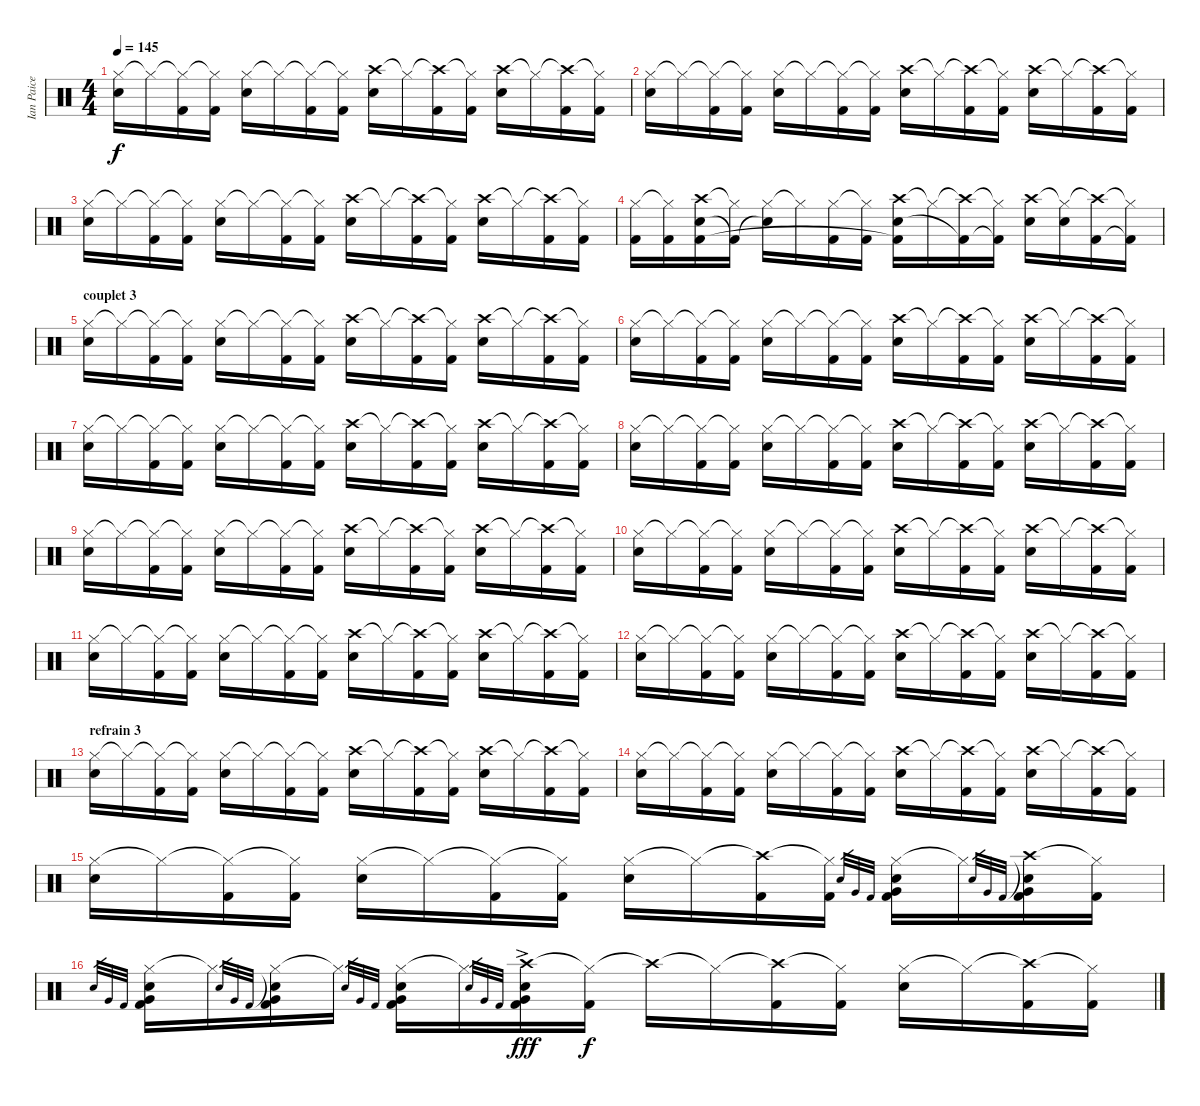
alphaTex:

\track ("Ian Paice" "Ian Paice") {instrument percussion}
\staff {score}
\articulation defaults
\ts (4 4)
\tempo 145
\clef neutral
\ks c
("Hi-Hat (closed)" "Snare (hit) 2").16{dy f} "Hi-Hat (closed)"{t}.16 ("Hi-Hat (closed)"{t} "Kick (hit) 2").16 ("Hi-Hat (closed)"{t} "Kick (hit) 2").16 ("Hi-Hat (closed)" "Snare (hit) 2").16 "Hi-Hat (closed)"{t}.16 ("Hi-Hat (closed)"{t} "Kick (hit) 2").16 ("Hi-Hat (closed)"{t} "Kick (hit) 2").16 ("Crash high (hit)" "Snare (hit) 2").16 "Hi-Hat (closed)"{t}.16 ("Crash high (hit)"{t} "Kick (hit) 2").16 ("Hi-Hat (closed)"{t} "Kick (hit) 2").16 ("Crash high (hit)" "Snare (hit) 2").16 "Hi-Hat (closed)"{t}.16 ("Crash high (hit)"{t} "Kick (hit) 2").16 ("Hi-Hat (closed)"{t} "Kick (hit) 2").16 |
("Hi-Hat (closed)" "Snare (hit) 2").16 "Hi-Hat (closed)"{t}.16 ("Hi-Hat (closed)"{t} "Kick (hit) 2").16 ("Hi-Hat (closed)"{t} "Kick (hit) 2").16 ("Hi-Hat (closed)" "Snare (hit) 2").16 "Hi-Hat (closed)"{t}.16 ("Hi-Hat (closed)"{t} "Kick (hit) 2").16 ("Hi-Hat (closed)"{t} "Kick (hit) 2").16 ("Crash high (hit)" "Snare (hit) 2").16 "Hi-Hat (closed)"{t}.16 ("Crash high (hit)"{t} "Kick (hit) 2").16 ("Hi-Hat (closed)"{t} "Kick (hit) 2").16 ("Crash high (hit)" "Snare (hit) 2").16 "Hi-Hat (closed)"{t}.16 ("Crash high (hit)"{t} "Kick (hit) 2").16 ("Hi-Hat (closed)"{t} "Kick (hit) 2").16 |
("Hi-Hat (closed)" "Snare (hit) 2").16 "Hi-Hat (closed)"{t}.16 ("Hi-Hat (closed)"{t} "Kick (hit) 2").16 ("Hi-Hat (closed)"{t} "Kick (hit) 2").16 ("Hi-Hat (closed)" "Snare (hit) 2").16 "Hi-Hat (closed)"{t}.16 ("Hi-Hat (closed)"{t} "Kick (hit) 2").16 ("Hi-Hat (closed)"{t} "Kick (hit) 2").16 ("Crash high (hit)" "Snare (hit) 2").16 "Hi-Hat (closed)"{t}.16 ("Crash high (hit)"{t} "Kick (hit) 2").16 ("Hi-Hat (closed)"{t} "Kick (hit) 2").16 ("Crash high (hit)" "Snare (hit) 2").16 "Hi-Hat (closed)"{t}.16 ("Crash high (hit)"{t} "Kick (hit) 2").16 ("Hi-Hat (closed)"{t} "Kick (hit) 2").16 |
("Hi-Hat (closed)" "Kick (hit) 2").16 ("Hi-Hat (closed)"{t} "Kick (hit) 2").16 ("Crash high (hit)" "Snare (hit) 2" "Kick (hit) 2").16 ("Hi-Hat (closed)"{t} "Kick (hit) 2"{t}).16 ("Hi-Hat (closed)" "Snare (hit) 2"{t}).16 "Hi-Hat (closed)"{t}.16 ("Hi-Hat (closed)" "Kick (hit) 2").16 ("Hi-Hat (closed)"{t} "Kick (hit) 2").16 ("Crash high (hit)" "Snare (hit) 2" "Kick (hit) 2"{t}).16 "Hi-Hat (closed)"{t}.16 ("Crash high (hit)"{t} "Kick (hit) 2"{t}).16 ("Hi-Hat (closed)"{t} "Kick (hit) 2"{t}).16 ("Crash high (hit)" "Snare (hit) 2").16 ("Hi-Hat (closed)"{t} "Snare (hit) 2").16 ("Crash high (hit)"{t} "Kick (hit) 2").16 ("Hi-Hat (closed)"{t} "Kick (hit) 2"{t}).16 |
\section ("" "couplet 3")
("Hi-Hat (closed)" "Snare (hit) 2").16 "Hi-Hat (closed)"{t}.16 ("Hi-Hat (closed)"{t} "Kick (hit) 2").16 ("Hi-Hat (closed)"{t} "Kick (hit) 2").16 ("Hi-Hat (closed)" "Snare (hit) 2").16 "Hi-Hat (closed)"{t}.16 ("Hi-Hat (closed)"{t} "Kick (hit) 2").16 ("Hi-Hat (closed)"{t} "Kick (hit) 2").16 ("Crash high (hit)" "Snare (hit) 2").16 "Hi-Hat (closed)"{t}.16 ("Crash high (hit)"{t} "Kick (hit) 2").16 ("Hi-Hat (closed)"{t} "Kick (hit) 2").16 ("Crash high (hit)" "Snare (hit) 2").16 "Hi-Hat (closed)"{t}.16 ("Crash high (hit)"{t} "Kick (hit) 2").16 ("Hi-Hat (closed)"{t} "Kick (hit) 2").16 |
("Hi-Hat (closed)" "Snare (hit) 2").16 "Hi-Hat (closed)"{t}.16 ("Hi-Hat (closed)"{t} "Kick (hit) 2").16 ("Hi-Hat (closed)"{t} "Kick (hit) 2").16 ("Hi-Hat (closed)" "Snare (hit) 2").16 "Hi-Hat (closed)"{t}.16 ("Hi-Hat (closed)"{t} "Kick (hit) 2").16 ("Hi-Hat (closed)"{t} "Kick (hit) 2").16 ("Crash high (hit)" "Snare (hit) 2").16 "Hi-Hat (closed)"{t}.16 ("Crash high (hit)"{t} "Kick (hit) 2").16 ("Hi-Hat (closed)"{t} "Kick (hit) 2").16 ("Crash high (hit)" "Snare (hit) 2").16 "Hi-Hat (closed)"{t}.16 ("Crash high (hit)"{t} "Kick (hit) 2").16 ("Hi-Hat (closed)"{t} "Kick (hit) 2").16 |
("Hi-Hat (closed)" "Snare (hit) 2").16 "Hi-Hat (closed)"{t}.16 ("Hi-Hat (closed)"{t} "Kick (hit) 2").16 ("Hi-Hat (closed)"{t} "Kick (hit) 2").16 ("Hi-Hat (closed)" "Snare (hit) 2").16 "Hi-Hat (closed)"{t}.16 ("Hi-Hat (closed)"{t} "Kick (hit) 2").16 ("Hi-Hat (closed)"{t} "Kick (hit) 2").16 ("Crash high (hit)" "Snare (hit) 2").16 "Hi-Hat (closed)"{t}.16 ("Crash high (hit)"{t} "Kick (hit) 2").16 ("Hi-Hat (closed)"{t} "Kick (hit) 2").16 ("Crash high (hit)" "Snare (hit) 2").16 "Hi-Hat (closed)"{t}.16 ("Crash high (hit)"{t} "Kick (hit) 2").16 ("Hi-Hat (closed)"{t} "Kick (hit) 2").16 |
("Hi-Hat (closed)" "Snare (hit) 2").16 "Hi-Hat (closed)"{t}.16 ("Hi-Hat (closed)"{t} "Kick (hit) 2").16 ("Hi-Hat (closed)"{t} "Kick (hit) 2").16 ("Hi-Hat (closed)" "Snare (hit) 2").16 "Hi-Hat (closed)"{t}.16 ("Hi-Hat (closed)"{t} "Kick (hit) 2").16 ("Hi-Hat (closed)"{t} "Kick (hit) 2").16 ("Crash high (hit)" "Snare (hit) 2").16 "Hi-Hat (closed)"{t}.16 ("Crash high (hit)"{t} "Kick (hit) 2").16 ("Hi-Hat (closed)"{t} "Kick (hit) 2").16 ("Crash high (hit)" "Snare (hit) 2").16 "Hi-Hat (closed)"{t}.16 ("Crash high (hit)"{t} "Kick (hit) 2").16 ("Hi-Hat (closed)"{t} "Kick (hit) 2").16 |
("Hi-Hat (closed)" "Snare (hit) 2").16 "Hi-Hat (closed)"{t}.16 ("Hi-Hat (closed)"{t} "Kick (hit) 2").16 ("Hi-Hat (closed)"{t} "Kick (hit) 2").16 ("Hi-Hat (closed)" "Snare (hit) 2").16 "Hi-Hat (closed)"{t}.16 ("Hi-Hat (closed)"{t} "Kick (hit) 2").16 ("Hi-Hat (closed)"{t} "Kick (hit) 2").16 ("Crash high (hit)" "Snare (hit) 2").16 "Hi-Hat (closed)"{t}.16 ("Crash high (hit)"{t} "Kick (hit) 2").16 ("Hi-Hat (closed)"{t} "Kick (hit) 2").16 ("Crash high (hit)" "Snare (hit) 2").16 "Hi-Hat (closed)"{t}.16 ("Crash high (hit)"{t} "Kick (hit) 2").16 ("Hi-Hat (closed)"{t} "Kick (hit) 2").16 |
("Hi-Hat (closed)" "Snare (hit) 2").16 "Hi-Hat (closed)"{t}.16 ("Hi-Hat (closed)"{t} "Kick (hit) 2").16 ("Hi-Hat (closed)"{t} "Kick (hit) 2").16 ("Hi-Hat (closed)" "Snare (hit) 2").16 "Hi-Hat (closed)"{t}.16 ("Hi-Hat (closed)"{t} "Kick (hit) 2").16 ("Hi-Hat (closed)"{t} "Kick (hit) 2").16 ("Crash high (hit)" "Snare (hit) 2").16 "Hi-Hat (closed)"{t}.16 ("Crash high (hit)"{t} "Kick (hit) 2").16 ("Hi-Hat (closed)"{t} "Kick (hit) 2").16 ("Crash high (hit)" "Snare (hit) 2").16 "Hi-Hat (closed)"{t}.16 ("Crash high (hit)"{t} "Kick (hit) 2").16 ("Hi-Hat (closed)"{t} "Kick (hit) 2").16 |
("Hi-Hat (closed)" "Snare (hit) 2").16 "Hi-Hat (closed)"{t}.16 ("Hi-Hat (closed)"{t} "Kick (hit) 2").16 ("Hi-Hat (closed)"{t} "Kick (hit) 2").16 ("Hi-Hat (closed)" "Snare (hit) 2").16 "Hi-Hat (closed)"{t}.16 ("Hi-Hat (closed)"{t} "Kick (hit) 2").16 ("Hi-Hat (closed)"{t} "Kick (hit) 2").16 ("Crash high (hit)" "Snare (hit) 2").16 "Hi-Hat (closed)"{t}.16 ("Crash high (hit)"{t} "Kick (hit) 2").16 ("Hi-Hat (closed)"{t} "Kick (hit) 2").16 ("Crash high (hit)" "Snare (hit) 2").16 "Hi-Hat (closed)"{t}.16 ("Crash high (hit)"{t} "Kick (hit) 2").16 ("Hi-Hat (closed)"{t} "Kick (hit) 2").16 |
("Hi-Hat (closed)" "Snare (hit) 2").16 "Hi-Hat (closed)"{t}.16 ("Hi-Hat (closed)"{t} "Kick (hit) 2").16 ("Hi-Hat (closed)"{t} "Kick (hit) 2").16 ("Hi-Hat (closed)" "Snare (hit) 2").16 "Hi-Hat (closed)"{t}.16 ("Hi-Hat (closed)"{t} "Kick (hit) 2").16 ("Hi-Hat (closed)"{t} "Kick (hit) 2").16 ("Crash high (hit)" "Snare (hit) 2").16 "Hi-Hat (closed)"{t}.16 ("Crash high (hit)"{t} "Kick (hit) 2").16 ("Hi-Hat (closed)"{t} "Kick (hit) 2").16 ("Crash high (hit)" "Snare (hit) 2").16 "Hi-Hat (closed)"{t}.16 ("Crash high (hit)"{t} "Kick (hit) 2").16 ("Hi-Hat (closed)"{t} "Kick (hit) 2").16 |
\section ("" "refrain 3")
("Hi-Hat (closed)" "Snare (hit) 2").16 "Hi-Hat (closed)"{t}.16 ("Hi-Hat (closed)"{t} "Kick (hit) 2").16 ("Hi-Hat (closed)"{t} "Kick (hit) 2").16 ("Hi-Hat (closed)" "Snare (hit) 2").16 "Hi-Hat (closed)"{t}.16 ("Hi-Hat (closed)"{t} "Kick (hit) 2").16 ("Hi-Hat (closed)"{t} "Kick (hit) 2").16 ("Crash high (hit)" "Snare (hit) 2").16 "Hi-Hat (closed)"{t}.16 ("Crash high (hit)"{t} "Kick (hit) 2").16 ("Hi-Hat (closed)"{t} "Kick (hit) 2").16 ("Crash high (hit)" "Snare (hit) 2").16 "Hi-Hat (closed)"{t}.16 ("Crash high (hit)"{t} "Kick (hit) 2").16 ("Hi-Hat (closed)"{t} "Kick (hit) 2").16 |
("Hi-Hat (closed)" "Snare (hit) 2").16 "Hi-Hat (closed)"{t}.16 ("Hi-Hat (closed)"{t} "Kick (hit) 2").16 ("Hi-Hat (closed)"{t} "Kick (hit) 2").16 ("Hi-Hat (closed)" "Snare (hit) 2").16 "Hi-Hat (closed)"{t}.16 ("Hi-Hat (closed)"{t} "Kick (hit) 2").16 ("Hi-Hat (closed)"{t} "Kick (hit) 2").16 ("Crash high (hit)" "Snare (hit) 2").16 "Hi-Hat (closed)"{t}.16 ("Crash high (hit)"{t} "Kick (hit) 2").16 ("Hi-Hat (closed)"{t} "Kick (hit) 2").16 ("Crash high (hit)" "Snare (hit) 2").16 "Hi-Hat (closed)"{t}.16 ("Crash high (hit)"{t} "Kick (hit) 2").16 ("Hi-Hat (closed)"{t} "Kick (hit) 2").16 |
("Hi-Hat (closed)" "Snare (hit) 2").16 "Hi-Hat (closed)"{t}.16 ("Hi-Hat (closed)"{t} "Kick (hit) 2").16 ("Hi-Hat (closed)"{t} "Kick (hit) 2").16 ("Hi-Hat (closed)" "Snare (hit) 2").16 "Hi-Hat (closed)"{t}.16 ("Hi-Hat (closed)"{t} "Kick (hit) 2").16 ("Hi-Hat (closed)"{t} "Kick (hit) 2").16 ("Hi-Hat (closed)" "Snare (hit) 2").16 "Hi-Hat (closed)"{t}.16 ("Crash high (hit)"{t} "Kick (hit) 2").16 ("Hi-Hat (closed)"{t} "Kick (hit) 2").16 "Snare (hit) 2".32{gr} "Very Low Tom (hit)".32{gr} "Kick (hit) 2".32{gr} ("Hi-Hat (closed)" "Snare (hit) 2" "Very Low Tom (hit)" "Kick (hit) 2").16 "Hi-Hat (closed)"{t}.16 "Snare (hit) 2".32{gr} "Very Low Tom (hit)".32{gr} "Kick (hit) 2".32{gr} ("Crash high (hit)"{t} "Snare (hit) 2" "Very Low Tom (hit)" "Kick (hit) 2").16 ("Hi-Hat (closed)"{t} "Kick (hit) 2").16 |
"Snare (hit) 2".32{gr} "Very Low Tom (hit)".32{gr} "Kick (hit) 2".32{gr} ("Hi-Hat (closed)" "Snare (hit) 2" "Very Low Tom (hit)" "Kick (hit) 2").16 "Hi-Hat (closed)"{t}.16 "Snare (hit) 2".32{gr} "Very Low Tom (hit)".32{gr} "Kick (hit) 2".32{gr} ("Hi-Hat (closed)"{t} "Snare (hit) 2" "Very Low Tom (hit)" "Kick (hit) 2").16 "Hi-Hat (closed)"{t}.16 "Snare (hit) 2".32{gr} "Very Low Tom (hit)".32{gr} "Kick (hit) 2".32{gr} ("Hi-Hat (closed)" "Snare (hit) 2" "Very Low Tom (hit)" "Kick (hit) 2").16 "Hi-Hat (closed)"{t}.16 "Snare (hit) 2".32{gr} "Very Low Tom (hit)".32{gr} "Kick (hit) 2".32{gr} ("Crash high (hit)"{ac} "Snare (hit) 2" "Very Low Tom (hit)" "Kick (hit) 2").16{dy fff} ("Hi-Hat (closed)"{t} "Kick (hit) 2").16{dy f} "Crash high (hit)"{t}.16 "Hi-Hat (closed)"{t}.16 ("Crash high (hit)"{t} "Kick (hit) 2").16 ("Hi-Hat (closed)"{t} "Kick (hit) 2").16 ("Hi-Hat (closed)" "Snare (hit) 2").16 "Hi-Hat (closed)"{t}.16 ("Crash high (hit)"{t} "Kick (hit) 2").16 ("Hi-Hat (closed)"{t} "Kick (hit) 2").16
